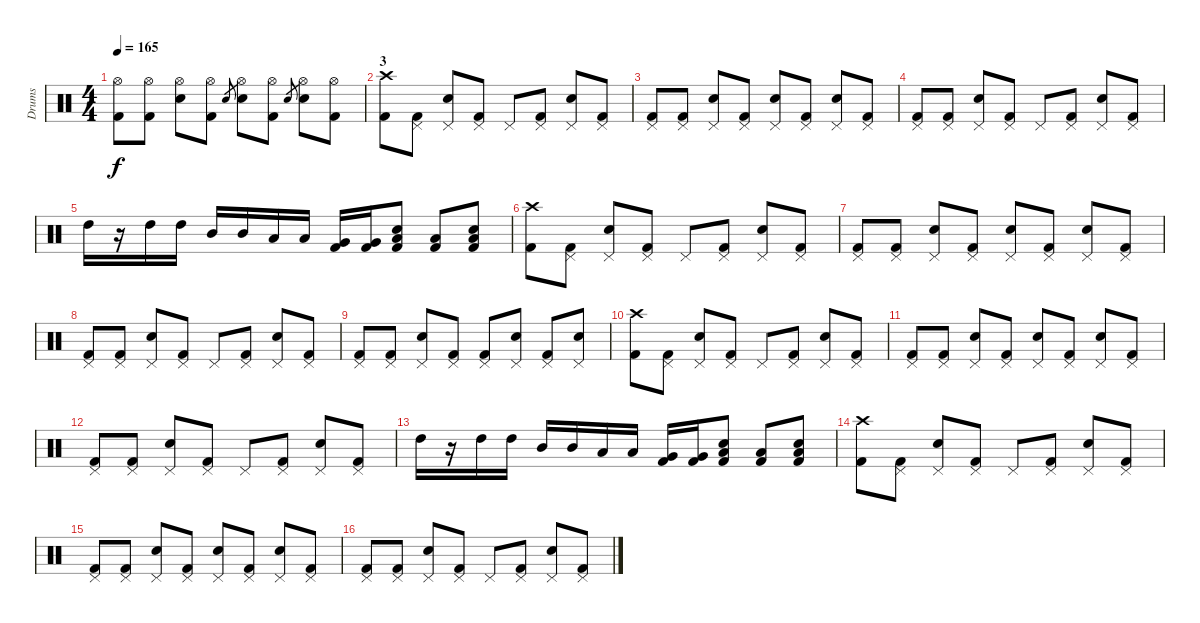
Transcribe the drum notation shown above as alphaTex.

\track ("Drums" "Drums") {instrument percussion}
\staff {score}
\articulation defaults
\ts (4 4)
\tempo 165
\clef neutral
\ks c
("Hi-Hat (open)" "Kick (hit) 2").8{dy f} ("Hi-Hat (open)" "Kick (hit) 2").8 ("Hi-Hat (open)" "Snare (hit) 2").8 ("Hi-Hat (open)" "Kick (hit) 2").8 "Snare (hit) 2".8{gr} ("Hi-Hat (open)" "Snare (hit) 2").8 ("Hi-Hat (open)" "Kick (hit) 2").8 "Snare (hit) 2".8{gr} ("Hi-Hat (open)" "Snare (hit) 2").8 ("Hi-Hat (open)" "Kick (hit) 2").8 |
\section ("" "3")
("Crash high (hit)" "Kick (hit) 2").8 ("Pedal Hi-Hat (hit)" "Kick (hit) 2").8 ("Pedal Hi-Hat (hit)" "Snare (hit) 2").8 ("Pedal Hi-Hat (hit)" "Kick (hit) 2").8 "Pedal Hi-Hat (hit)".8 ("Pedal Hi-Hat (hit)" "Kick (hit) 2").8 ("Pedal Hi-Hat (hit)" "Snare (hit) 2").8 ("Pedal Hi-Hat (hit)" "Kick (hit) 2").8 |
("Pedal Hi-Hat (hit)" "Kick (hit) 2").8 ("Pedal Hi-Hat (hit)" "Kick (hit) 2").8 ("Pedal Hi-Hat (hit)" "Snare (hit) 2").8 ("Pedal Hi-Hat (hit)" "Kick (hit) 2").8 ("Pedal Hi-Hat (hit)" "Snare (hit) 2").8 ("Pedal Hi-Hat (hit)" "Kick (hit) 2").8 ("Pedal Hi-Hat (hit)" "Snare (hit) 2").8 ("Pedal Hi-Hat (hit)" "Kick (hit) 2").8 |
("Pedal Hi-Hat (hit)" "Kick (hit) 2").8 ("Pedal Hi-Hat (hit)" "Kick (hit) 2").8 ("Pedal Hi-Hat (hit)" "Snare (hit) 2").8 ("Pedal Hi-Hat (hit)" "Kick (hit) 2").8 "Pedal Hi-Hat (hit)".8 ("Pedal Hi-Hat (hit)" "Kick (hit) 2").8 ("Pedal Hi-Hat (hit)" "Snare (hit) 2").8 ("Pedal Hi-Hat (hit)" "Kick (hit) 2").8 |
"High Tom (hit)".16 r.16 "High Tom (hit)".16 "High Tom (hit)".16 "Mid Tom (hit)".16 "Mid Tom (hit)".16 "Low Tom (hit)".16 "Low Tom (hit)".16 ("Very Low Tom (hit)" "Kick (hit) 2").16 ("Very Low Tom (hit)" "Kick (hit) 2").16 ("Low Floor Tom (hit)" "Kick (hit) 2" "Snare (hit) 2").8 ("Low Floor Tom (hit)" "Kick (hit) 2").8 ("Low Floor Tom (hit)" "Kick (hit) 2" "Snare (hit) 2").8 |
("Crash high (hit)" "Kick (hit) 2").8 ("Pedal Hi-Hat (hit)" "Kick (hit) 2").8 ("Pedal Hi-Hat (hit)" "Snare (hit) 2").8 ("Pedal Hi-Hat (hit)" "Kick (hit) 2").8 "Pedal Hi-Hat (hit)".8 ("Pedal Hi-Hat (hit)" "Kick (hit) 2").8 ("Pedal Hi-Hat (hit)" "Snare (hit) 2").8 ("Pedal Hi-Hat (hit)" "Kick (hit) 2").8 |
("Pedal Hi-Hat (hit)" "Kick (hit) 2").8 ("Pedal Hi-Hat (hit)" "Kick (hit) 2").8 ("Pedal Hi-Hat (hit)" "Snare (hit) 2").8 ("Pedal Hi-Hat (hit)" "Kick (hit) 2").8 ("Pedal Hi-Hat (hit)" "Snare (hit) 2").8 ("Pedal Hi-Hat (hit)" "Kick (hit) 2").8 ("Pedal Hi-Hat (hit)" "Snare (hit) 2").8 ("Pedal Hi-Hat (hit)" "Kick (hit) 2").8 |
("Pedal Hi-Hat (hit)" "Kick (hit) 2").8 ("Pedal Hi-Hat (hit)" "Kick (hit) 2").8 ("Pedal Hi-Hat (hit)" "Snare (hit) 2").8 ("Pedal Hi-Hat (hit)" "Kick (hit) 2").8 "Pedal Hi-Hat (hit)".8 ("Pedal Hi-Hat (hit)" "Kick (hit) 2").8 ("Pedal Hi-Hat (hit)" "Snare (hit) 2").8 ("Pedal Hi-Hat (hit)" "Kick (hit) 2").8 |
("Pedal Hi-Hat (hit)" "Kick (hit) 2").8 ("Pedal Hi-Hat (hit)" "Kick (hit) 2").8 ("Pedal Hi-Hat (hit)" "Snare (hit) 2").8 ("Pedal Hi-Hat (hit)" "Kick (hit) 2").8 ("Pedal Hi-Hat (hit)" "Kick (hit) 2").8 ("Pedal Hi-Hat (hit)" "Snare (hit) 2").8 ("Pedal Hi-Hat (hit)" "Kick (hit) 2").8 ("Pedal Hi-Hat (hit)" "Snare (hit) 2").8 |
("Crash high (hit)" "Kick (hit) 2").8 ("Pedal Hi-Hat (hit)" "Kick (hit) 2").8 ("Pedal Hi-Hat (hit)" "Snare (hit) 2").8 ("Pedal Hi-Hat (hit)" "Kick (hit) 2").8 "Pedal Hi-Hat (hit)".8 ("Pedal Hi-Hat (hit)" "Kick (hit) 2").8 ("Pedal Hi-Hat (hit)" "Snare (hit) 2").8 ("Pedal Hi-Hat (hit)" "Kick (hit) 2").8 |
("Pedal Hi-Hat (hit)" "Kick (hit) 2").8 ("Pedal Hi-Hat (hit)" "Kick (hit) 2").8 ("Pedal Hi-Hat (hit)" "Snare (hit) 2").8 ("Pedal Hi-Hat (hit)" "Kick (hit) 2").8 ("Pedal Hi-Hat (hit)" "Snare (hit) 2").8 ("Pedal Hi-Hat (hit)" "Kick (hit) 2").8 ("Pedal Hi-Hat (hit)" "Snare (hit) 2").8 ("Pedal Hi-Hat (hit)" "Kick (hit) 2").8 |
("Pedal Hi-Hat (hit)" "Kick (hit) 2").8 ("Pedal Hi-Hat (hit)" "Kick (hit) 2").8 ("Pedal Hi-Hat (hit)" "Snare (hit) 2").8 ("Pedal Hi-Hat (hit)" "Kick (hit) 2").8 "Pedal Hi-Hat (hit)".8 ("Pedal Hi-Hat (hit)" "Kick (hit) 2").8 ("Pedal Hi-Hat (hit)" "Snare (hit) 2").8 ("Pedal Hi-Hat (hit)" "Kick (hit) 2").8 |
"High Tom (hit)".16 r.16 "High Tom (hit)".16 "High Tom (hit)".16 "Mid Tom (hit)".16 "Mid Tom (hit)".16 "Low Tom (hit)".16 "Low Tom (hit)".16 ("Very Low Tom (hit)" "Kick (hit) 2").16 ("Very Low Tom (hit)" "Kick (hit) 2").16 ("Low Floor Tom (hit)" "Kick (hit) 2" "Snare (hit) 2").8 ("Low Floor Tom (hit)" "Kick (hit) 2").8 ("Low Floor Tom (hit)" "Kick (hit) 2" "Snare (hit) 2").8 |
("Crash high (hit)" "Kick (hit) 2").8 ("Pedal Hi-Hat (hit)" "Kick (hit) 2").8 ("Pedal Hi-Hat (hit)" "Snare (hit) 2").8 ("Pedal Hi-Hat (hit)" "Kick (hit) 2").8 "Pedal Hi-Hat (hit)".8 ("Pedal Hi-Hat (hit)" "Kick (hit) 2").8 ("Pedal Hi-Hat (hit)" "Snare (hit) 2").8 ("Pedal Hi-Hat (hit)" "Kick (hit) 2").8 |
("Pedal Hi-Hat (hit)" "Kick (hit) 2").8 ("Pedal Hi-Hat (hit)" "Kick (hit) 2").8 ("Pedal Hi-Hat (hit)" "Snare (hit) 2").8 ("Pedal Hi-Hat (hit)" "Kick (hit) 2").8 ("Pedal Hi-Hat (hit)" "Snare (hit) 2").8 ("Pedal Hi-Hat (hit)" "Kick (hit) 2").8 ("Pedal Hi-Hat (hit)" "Snare (hit) 2").8 ("Pedal Hi-Hat (hit)" "Kick (hit) 2").8 |
("Pedal Hi-Hat (hit)" "Kick (hit) 2").8 ("Pedal Hi-Hat (hit)" "Kick (hit) 2").8 ("Pedal Hi-Hat (hit)" "Snare (hit) 2").8 ("Pedal Hi-Hat (hit)" "Kick (hit) 2").8 "Pedal Hi-Hat (hit)".8 ("Pedal Hi-Hat (hit)" "Kick (hit) 2").8 ("Pedal Hi-Hat (hit)" "Snare (hit) 2").8 ("Pedal Hi-Hat (hit)" "Kick (hit) 2").8
